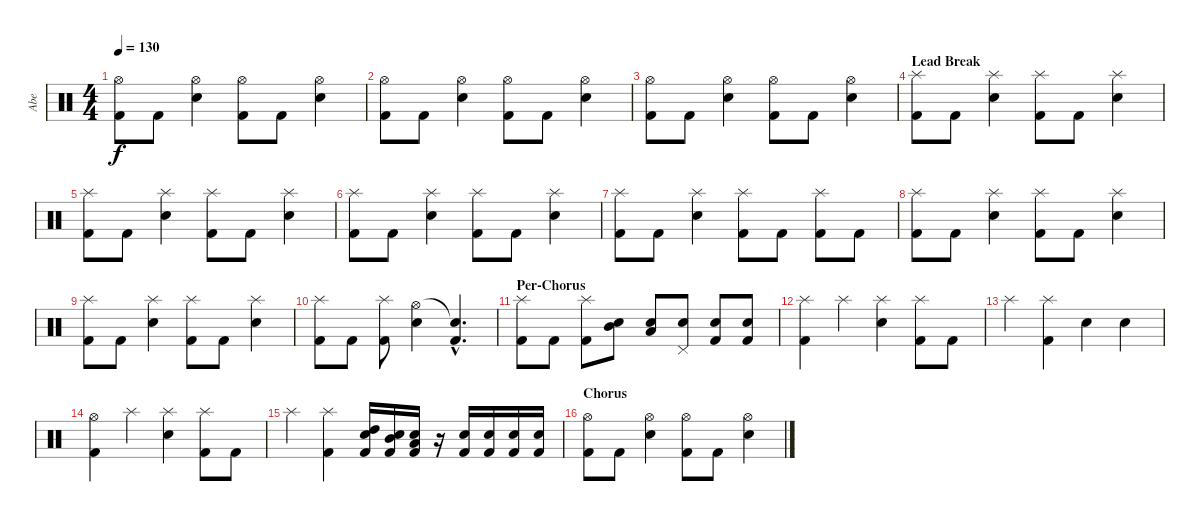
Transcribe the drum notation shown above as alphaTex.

\track ("Abe" "Abe") {instrument percussion}
\staff {score}
\articulation defaults
\ts (4 4)
\tempo 130
\clef neutral
\ks c
("Hi-Hat (open)" "Kick (hit) 2").8{dy f} "Kick (hit) 2".8 ("Hi-Hat (open)" "Snare (hit) 2").4 ("Hi-Hat (open)" "Kick (hit) 2").8 "Kick (hit) 2".8 ("Hi-Hat (open)" "Snare (hit) 2").4 |
("Hi-Hat (open)" "Kick (hit) 2").8 "Kick (hit) 2".8 ("Hi-Hat (open)" "Snare (hit) 2").4 ("Hi-Hat (open)" "Kick (hit) 2").8 "Kick (hit) 2".8 ("Hi-Hat (open)" "Snare (hit) 2").4 |
("Hi-Hat (open)" "Kick (hit) 2").8 "Kick (hit) 2".8 ("Hi-Hat (open)" "Snare (hit) 2").4 ("Hi-Hat (open)" "Kick (hit) 2").8 "Kick (hit) 2".8 ("Hi-Hat (open)" "Snare (hit) 2").4 |
\section ("" "Lead Break")
("Splash (hit)" "Kick (hit) 2").8 "Kick (hit) 2".8 ("Splash (hit)" "Snare (hit) 2").4 ("Splash (hit)" "Kick (hit) 2").8 "Kick (hit) 2".8 ("Splash (hit)" "Snare (hit) 2").4 |
("Splash (hit)" "Kick (hit) 2").8 "Kick (hit) 2".8 ("Splash (hit)" "Snare (hit) 2").4 ("Splash (hit)" "Kick (hit) 2").8 "Kick (hit) 2".8 ("Splash (hit)" "Snare (hit) 2").4 |
("Splash (hit)" "Kick (hit) 2").8 "Kick (hit) 2".8 ("Splash (hit)" "Snare (hit) 2").4 ("Splash (hit)" "Kick (hit) 2").8 "Kick (hit) 2".8 ("Splash (hit)" "Snare (hit) 2").4 |
("Splash (hit)" "Kick (hit) 2").8 "Kick (hit) 2".8 ("Splash (hit)" "Snare (hit) 2").4 ("Splash (hit)" "Kick (hit) 2").8 "Kick (hit) 2".8 ("Splash (hit)" "Kick (hit) 2").8 "Kick (hit) 2".8 |
("Splash (hit)" "Kick (hit) 2").8 "Kick (hit) 2".8 ("Splash (hit)" "Snare (hit) 2").4 ("Splash (hit)" "Kick (hit) 2").8 "Kick (hit) 2".8 ("Splash (hit)" "Snare (hit) 2").4 |
("Splash (hit)" "Kick (hit) 2").8 "Kick (hit) 2".8 ("Splash (hit)" "Snare (hit) 2").4 ("Splash (hit)" "Kick (hit) 2").8 "Kick (hit) 2".8 ("Splash (hit)" "Snare (hit) 2").4 |
("Splash (hit)" "Kick (hit) 2").8 "Kick (hit) 2".8 ("Splash (hit)" "Kick (hit) 2").8 ("Hi-Hat (open)" "Snare (hit) 2").4 ("Snare (hit)"{hac t} "Kick (hit) 2"{hac}).4{d} |
\section ("" "Per-Chorus")
("Splash (hit)" "Kick (hit) 2").8 "Kick (hit) 2".8 ("Splash (hit)" "Kick (hit) 2").8 ("Snare (hit) 2" "Mid Tom (hit)").8 ("Snare (hit) 2" "Low Tom (hit)").8 ("Snare (hit) 2" "Pedal Hi-Hat (hit)").8 ("Snare (hit) 2" "Kick (hit) 2").8 ("Snare (hit) 2" "Kick (hit) 2").8 |
("Splash (hit)" "Kick (hit) 2").4 "Splash (hit)".4 ("Splash (hit)" "Snare (hit) 2").4 ("Splash (hit)" "Kick (hit) 2").8 "Kick (hit) 2".8 |
"Splash (hit)".4 ("Splash (hit)" "Kick (hit) 2").4 "Snare (hit) 2".4 "Snare (hit) 2".4 |
("Hi-Hat (open)" "Kick (hit) 2").4 "Splash (hit)".4 ("Splash (hit)" "Snare (hit) 2").4 ("Splash (hit)" "Kick (hit) 2").8 "Kick (hit) 2".8 |
"Splash (hit)".4 ("Splash (hit)" "Kick (hit) 2").4 ("Kick (hit) 2" "Snare (hit) 2" "High Tom (hit)").16 ("Kick (hit) 2" "Snare (hit) 2" "Mid Tom (hit)").16 ("Kick (hit) 2" "Snare (hit) 2" "Low Tom (hit)").16 r.16 ("Kick (hit) 2" "Snare (hit) 2").16 ("Kick (hit) 2" "Snare (hit) 2").16 ("Kick (hit) 2" "Snare (hit) 2").16 ("Kick (hit) 2" "Snare (hit) 2").16 |
\section ("" "Chorus")
("Hi-Hat (open)" "Kick (hit) 2").8 "Kick (hit) 2".8 ("Hi-Hat (open)" "Snare (hit) 2").4 ("Hi-Hat (open)" "Kick (hit) 2").8 "Kick (hit) 2".8 ("Hi-Hat (open)" "Snare (hit) 2").4
